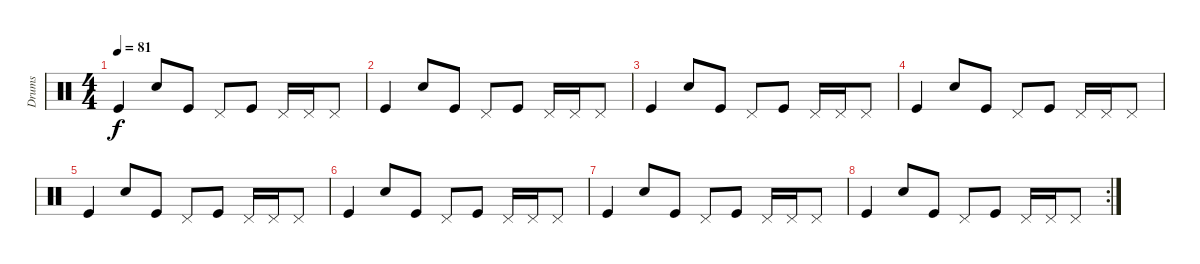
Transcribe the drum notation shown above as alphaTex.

\track ("Drums" "Drums") {instrument percussion}
\staff {score}
\articulation defaults
\ts (4 4)
\tempo 81
\clef neutral
\ks c "Kick (hit)".4{dy f} "Snare (hit) 2".8 "Kick (hit)".8 "Pedal Hi-Hat (hit)".8 "Kick (hit)".8 "Pedal Hi-Hat (hit)".16 "Pedal Hi-Hat (hit)".16 "Pedal Hi-Hat (hit)".8
|
"Kick (hit)".4 "Snare (hit) 2".8 "Kick (hit)".8 "Pedal Hi-Hat (hit)".8 "Kick (hit)".8 "Pedal Hi-Hat (hit)".16 "Pedal Hi-Hat (hit)".16 "Pedal Hi-Hat (hit)".8 |
"Kick (hit)".4 "Snare (hit) 2".8 "Kick (hit)".8 "Pedal Hi-Hat (hit)".8 "Kick (hit)".8 "Pedal Hi-Hat (hit)".16 "Pedal Hi-Hat (hit)".16 "Pedal Hi-Hat (hit)".8 |
"Kick (hit)".4 "Snare (hit) 2".8 "Kick (hit)".8 "Pedal Hi-Hat (hit)".8 "Kick (hit)".8 "Pedal Hi-Hat (hit)".16 "Pedal Hi-Hat (hit)".16 "Pedal Hi-Hat (hit)".8 |
"Kick (hit)".4 "Snare (hit) 2".8 "Kick (hit)".8 "Pedal Hi-Hat (hit)".8 "Kick (hit)".8 "Pedal Hi-Hat (hit)".16 "Pedal Hi-Hat (hit)".16 "Pedal Hi-Hat (hit)".8 |
"Kick (hit)".4 "Snare (hit) 2".8 "Kick (hit)".8 "Pedal Hi-Hat (hit)".8 "Kick (hit)".8 "Pedal Hi-Hat (hit)".16 "Pedal Hi-Hat (hit)".16 "Pedal Hi-Hat (hit)".8 |
"Kick (hit)".4 "Snare (hit) 2".8 "Kick (hit)".8 "Pedal Hi-Hat (hit)".8 "Kick (hit)".8 "Pedal Hi-Hat (hit)".16 "Pedal Hi-Hat (hit)".16 "Pedal Hi-Hat (hit)".8 |
\rc 2 "Kick (hit)".4 "Snare (hit) 2".8 "Kick (hit)".8 "Pedal Hi-Hat (hit)".8 "Kick (hit)".8 "Pedal Hi-Hat (hit)".16 "Pedal Hi-Hat (hit)".16 "Pedal Hi-Hat (hit)".8
